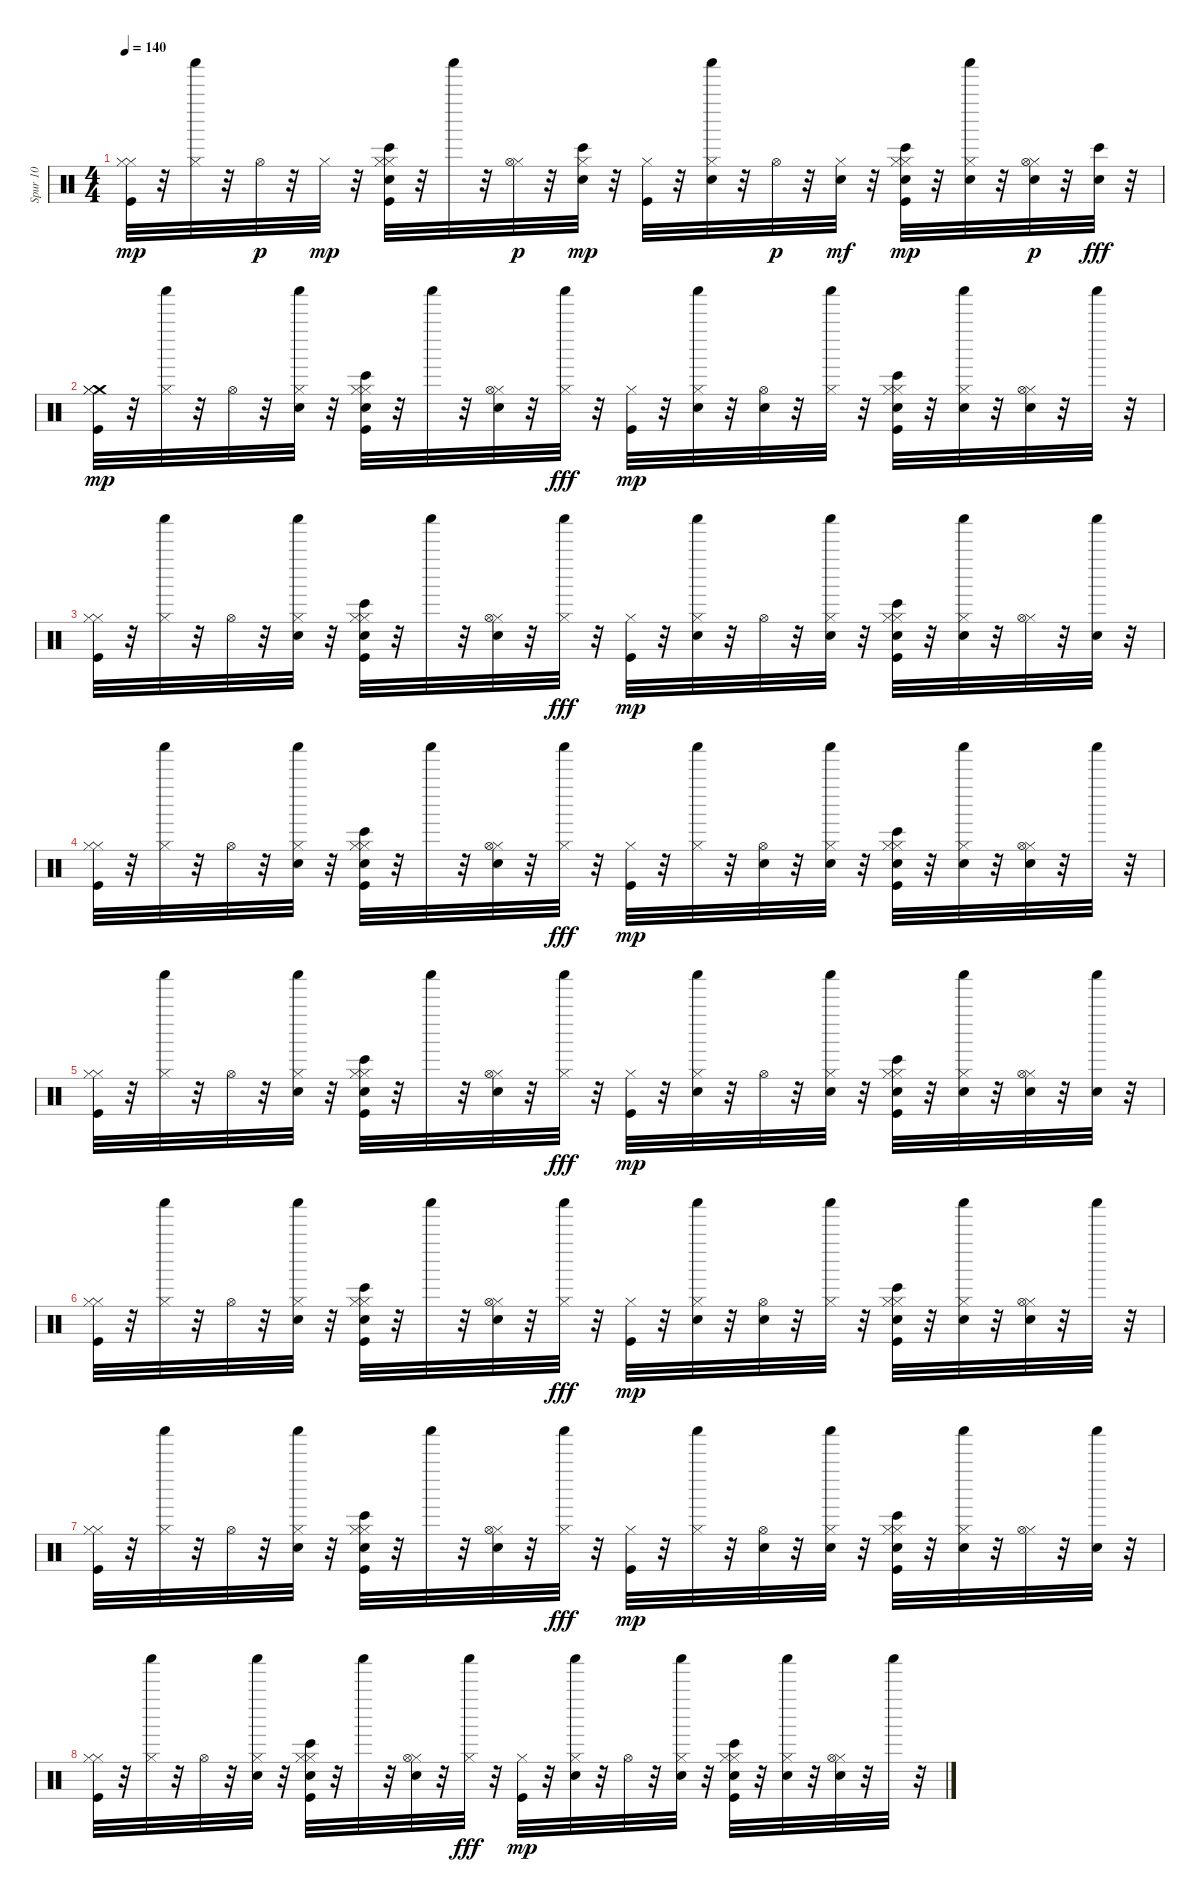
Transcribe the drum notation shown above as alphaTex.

\track ("Spur 10" "Spur 10") {instrument percussion}
\staff {score}
\articulation defaults
\ts (4 4)
\tempo 140
\clef neutral
\ks c
("Hi-Hat (closed)" "Kick (hit)" "Hi-Hat (closed)").32{dy mp} r.32 ("Hi-Hat (closed)" "Shaker (hit)").32 r.32 "Hi-Hat (open)".32{dy p} r.32 "Hi-Hat (closed)".32{dy mp} r.32 ("Hi-Hat (closed)" "Kick (hit)" "Bongo High (hit)" "Electric Snare (hit)" "Hi-Hat (closed)").32 r.32 "Shaker (hit)".32 r.32 ("Hi-Hat (closed)" "Hi-Hat (open)").32{dy p} r.32 ("Hi-Hat (closed)" "Bongo High (hit)" "Electric Snare (hit)").32{dy mp} r.32 ("Kick (hit)" "Hi-Hat (closed)").32 r.32 ("Snare (hit)" "Hi-Hat (closed)" "Shaker (hit)").32 r.32 "Hi-Hat (open)".32{dy p} r.32 ("Hi-Hat (closed)" "Snare (hit) 2").32{dy mf} r.32 ("Hi-Hat (closed)" "Kick (hit)" "Bongo High (hit)" "Electric Snare (hit)" "Hi-Hat (closed)").32{dy mp} r.32 ("Hi-Hat (closed)" "Shaker (hit)" "Snare (hit) 2").32 r.32 ("Hi-Hat (closed)" "Snare (hit) 2" "Hi-Hat (open)").32{dy p} r.32 ("Bongo High (hit)" "Electric Snare (hit)").32{dy fff} r.32 |
("Crash medium (hit)" "Hi-Hat (closed)" "Kick (hit)" "Hi-Hat (closed)").32{dy mp} r.32 ("Hi-Hat (closed)" "Shaker (hit)").32 r.32 "Hi-Hat (open)".32 r.32 ("Shaker (hit)" "Snare (hit) 2" "Hi-Hat (closed)").32 r.32 ("Hi-Hat (closed)" "Kick (hit)" "Bongo High (hit)" "Electric Snare (hit)" "Hi-Hat (closed)").32 r.32 "Shaker (hit)".32 r.32 ("Snare (hit) 2" "Hi-Hat (closed)" "Hi-Hat (open)").32 r.32 ("Shaker (hit)" "Hi-Hat (closed)").32{dy fff} r.32 ("Kick (hit)" "Hi-Hat (closed)").32{dy mp} r.32 ("Snare (hit) 2" "Hi-Hat (closed)" "Shaker (hit)").32 r.32 ("Snare (hit) 2" "Hi-Hat (open)").32 r.32 ("Shaker (hit)" "Hi-Hat (closed)").32 r.32 ("Hi-Hat (closed)" "Kick (hit)" "Bongo High (hit)" "Electric Snare (hit)" "Hi-Hat (closed)").32 r.32 ("Snare (hit) 2" "Hi-Hat (closed)" "Shaker (hit)").32 r.32 ("Snare (hit) 2" "Hi-Hat (closed)" "Hi-Hat (open)").32 r.32 "Shaker (hit)".32 r.32 |
("Hi-Hat (closed)" "Kick (hit)" "Hi-Hat (closed)").32 r.32 ("Hi-Hat (closed)" "Shaker (hit)").32 r.32 "Hi-Hat (open)".32 r.32 ("Shaker (hit)" "Snare (hit) 2" "Hi-Hat (closed)").32 r.32 ("Hi-Hat (closed)" "Kick (hit)" "Bongo High (hit)" "Electric Snare (hit)" "Hi-Hat (closed)").32 r.32 "Shaker (hit)".32 r.32 ("Snare (hit) 2" "Hi-Hat (closed)" "Hi-Hat (open)").32 r.32 ("Shaker (hit)" "Hi-Hat (closed)").32{dy fff} r.32 ("Kick (hit)" "Hi-Hat (closed)").32{dy mp} r.32 ("Snare (hit) 2" "Hi-Hat (closed)" "Shaker (hit)").32 r.32 "Hi-Hat (open)".32 r.32 ("Snare (hit) 2" "Shaker (hit)" "Hi-Hat (closed)").32 r.32 ("Hi-Hat (closed)" "Kick (hit)" "Bongo High (hit)" "Electric Snare (hit)" "Hi-Hat (closed)").32 r.32 ("Snare (hit) 2" "Hi-Hat (closed)" "Shaker (hit)").32 r.32 ("Hi-Hat (closed)" "Hi-Hat (open)").32 r.32 ("Snare (hit) 2" "Shaker (hit)").32 r.32 |
("Hi-Hat (closed)" "Kick (hit)" "Hi-Hat (closed)").32 r.32 ("Hi-Hat (closed)" "Shaker (hit)").32 r.32 "Hi-Hat (open)".32 r.32 ("Shaker (hit)" "Snare (hit) 2" "Hi-Hat (closed)").32 r.32 ("Hi-Hat (closed)" "Kick (hit)" "Bongo High (hit)" "Electric Snare (hit)" "Hi-Hat (closed)").32 r.32 "Shaker (hit)".32 r.32 ("Snare (hit) 2" "Hi-Hat (closed)" "Hi-Hat (open)").32 r.32 ("Shaker (hit)" "Hi-Hat (closed)").32{dy fff} r.32 ("Kick (hit)" "Hi-Hat (closed)").32{dy mp} r.32 ("Hi-Hat (closed)" "Shaker (hit)").32 r.32 ("Snare (hit) 2" "Hi-Hat (open)").32 r.32 ("Snare (hit) 2" "Shaker (hit)" "Hi-Hat (closed)").32 r.32 ("Hi-Hat (closed)" "Kick (hit)" "Bongo High (hit)" "Electric Snare (hit)" "Hi-Hat (closed)").32 r.32 ("Snare (hit) 2" "Hi-Hat (closed)" "Shaker (hit)").32 r.32 ("Snare (hit) 2" "Hi-Hat (closed)" "Hi-Hat (open)").32 r.32 "Shaker (hit)".32 r.32 |
("Hi-Hat (closed)" "Kick (hit)" "Hi-Hat (closed)").32 r.32 ("Hi-Hat (closed)" "Shaker (hit)").32 r.32 "Hi-Hat (open)".32 r.32 ("Shaker (hit)" "Snare (hit) 2" "Hi-Hat (closed)").32 r.32 ("Hi-Hat (closed)" "Kick (hit)" "Bongo High (hit)" "Electric Snare (hit)" "Hi-Hat (closed)").32 r.32 "Shaker (hit)".32 r.32 ("Snare (hit) 2" "Hi-Hat (closed)" "Hi-Hat (open)").32 r.32 ("Shaker (hit)" "Hi-Hat (closed)").32{dy fff} r.32 ("Kick (hit)" "Hi-Hat (closed)").32{dy mp} r.32 ("Snare (hit) 2" "Hi-Hat (closed)" "Shaker (hit)").32 r.32 "Hi-Hat (open)".32 r.32 ("Snare (hit) 2" "Shaker (hit)" "Hi-Hat (closed)").32 r.32 ("Hi-Hat (closed)" "Kick (hit)" "Bongo High (hit)" "Electric Snare (hit)" "Hi-Hat (closed)").32 r.32 ("Snare (hit) 2" "Hi-Hat (closed)" "Shaker (hit)").32 r.32 ("Snare (hit) 2" "Hi-Hat (closed)" "Hi-Hat (open)").32 r.32 ("Snare (hit) 2" "Shaker (hit)").32 r.32 |
("Hi-Hat (closed)" "Kick (hit)" "Hi-Hat (closed)").32 r.32 ("Hi-Hat (closed)" "Shaker (hit)").32 r.32 "Hi-Hat (open)".32 r.32 ("Shaker (hit)" "Snare (hit) 2" "Hi-Hat (closed)").32 r.32 ("Hi-Hat (closed)" "Kick (hit)" "Bongo High (hit)" "Electric Snare (hit)" "Hi-Hat (closed)").32 r.32 "Shaker (hit)".32 r.32 ("Snare (hit) 2" "Hi-Hat (closed)" "Hi-Hat (open)").32 r.32 ("Shaker (hit)" "Hi-Hat (closed)").32{dy fff} r.32 ("Kick (hit)" "Hi-Hat (closed)").32{dy mp} r.32 ("Snare (hit) 2" "Hi-Hat (closed)" "Shaker (hit)").32 r.32 ("Snare (hit) 2" "Hi-Hat (open)").32 r.32 ("Shaker (hit)" "Hi-Hat (closed)").32 r.32 ("Hi-Hat (closed)" "Kick (hit)" "Bongo High (hit)" "Electric Snare (hit)" "Hi-Hat (closed)").32 r.32 ("Snare (hit) 2" "Hi-Hat (closed)" "Shaker (hit)").32 r.32 ("Snare (hit) 2" "Hi-Hat (closed)" "Hi-Hat (open)").32 r.32 "Shaker (hit)".32 r.32 |
("Hi-Hat (closed)" "Kick (hit)" "Hi-Hat (closed)").32 r.32 ("Hi-Hat (closed)" "Shaker (hit)").32 r.32 "Hi-Hat (open)".32 r.32 ("Shaker (hit)" "Snare (hit) 2" "Hi-Hat (closed)").32 r.32 ("Hi-Hat (closed)" "Kick (hit)" "Bongo High (hit)" "Electric Snare (hit)" "Hi-Hat (closed)").32 r.32 "Shaker (hit)".32 r.32 ("Snare (hit) 2" "Hi-Hat (closed)" "Hi-Hat (open)").32 r.32 ("Shaker (hit)" "Hi-Hat (closed)").32{dy fff} r.32 ("Kick (hit)" "Hi-Hat (closed)").32{dy mp} r.32 ("Hi-Hat (closed)" "Shaker (hit)").32 r.32 ("Snare (hit) 2" "Hi-Hat (open)").32 r.32 ("Snare (hit) 2" "Shaker (hit)" "Hi-Hat (closed)").32 r.32 ("Hi-Hat (closed)" "Kick (hit)" "Bongo High (hit)" "Electric Snare (hit)" "Hi-Hat (closed)").32 r.32 ("Snare (hit) 2" "Hi-Hat (closed)" "Shaker (hit)").32 r.32 ("Hi-Hat (closed)" "Hi-Hat (open)").32 r.32 ("Snare (hit) 2" "Shaker (hit)").32 r.32 |
("Hi-Hat (closed)" "Kick (hit)" "Hi-Hat (closed)").32 r.32 ("Hi-Hat (closed)" "Shaker (hit)").32 r.32 "Hi-Hat (open)".32 r.32 ("Shaker (hit)" "Snare (hit) 2" "Hi-Hat (closed)").32 r.32 ("Hi-Hat (closed)" "Kick (hit)" "Bongo High (hit)" "Electric Snare (hit)" "Hi-Hat (closed)").32 r.32 "Shaker (hit)".32 r.32 ("Snare (hit) 2" "Hi-Hat (closed)" "Hi-Hat (open)").32 r.32 ("Shaker (hit)" "Hi-Hat (closed)").32{dy fff} r.32 ("Kick (hit)" "Hi-Hat (closed)").32{dy mp} r.32 ("Snare (hit) 2" "Hi-Hat (closed)" "Shaker (hit)").32 r.32 "Hi-Hat (open)".32 r.32 ("Snare (hit) 2" "Shaker (hit)" "Hi-Hat (closed)").32 r.32 ("Hi-Hat (closed)" "Kick (hit)" "Bongo High (hit)" "Electric Snare (hit)" "Hi-Hat (closed)").32 r.32 ("Snare (hit) 2" "Hi-Hat (closed)" "Shaker (hit)").32 r.32 ("Snare (hit) 2" "Hi-Hat (closed)" "Hi-Hat (open)").32 r.32 "Shaker (hit)".32 r.32
